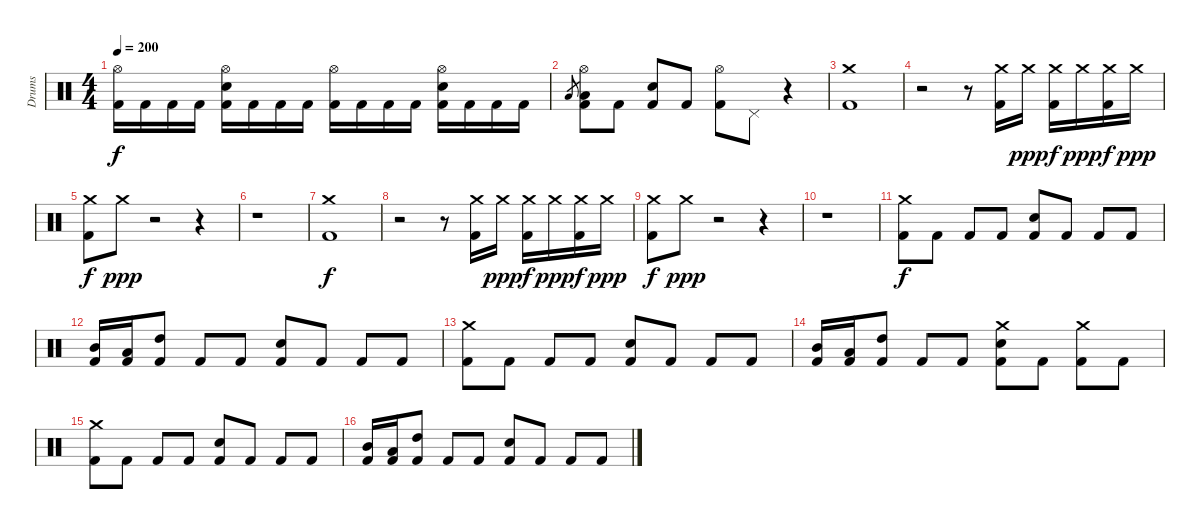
\track ("Drums" "Drums") {instrument percussion}
\staff {score}
\articulation defaults
\ts (4 4)
\tempo 200
\clef neutral
\ks c
("Hi-Hat (open)" "Kick (hit) 2").16{dy f} "Kick (hit) 2".16 "Kick (hit) 2".16 "Kick (hit) 2".16 ("Hi-Hat (open)" "Electric Snare (hit)" "Kick (hit) 2").16 "Kick (hit) 2".16 "Kick (hit) 2".16 "Kick (hit) 2".16 ("Hi-Hat (open)" "Kick (hit) 2").16 "Kick (hit) 2".16 "Kick (hit) 2".16 "Kick (hit) 2".16 ("Hi-Hat (open)" "Electric Snare (hit)" "Kick (hit) 2").16 "Kick (hit) 2".16 "Kick (hit) 2".16 "Kick (hit) 2".16 |
"Low Tom (hit)".8{gr} ("Hi-Hat (open)" "Low Tom (hit)" "Kick (hit) 2").8 "Kick (hit) 2".8 ("Electric Snare (hit)" "Kick (hit) 2").8 "Kick (hit) 2".8 ("Hi-Hat (open)" "Kick (hit) 2").8 "Pedal Hi-Hat (hit)".8 r.4 |
("Crash medium (hit)" "Kick (hit) 2").1 |
r.2 r.8 ("Crash medium (hit)" "Kick (hit) 2").16 "Crash medium (hit)".16{dy ppp} ("Crash medium (hit)" "Kick (hit) 2").16{dy f} "Crash medium (hit)".16{dy ppp} ("Crash medium (hit)" "Kick (hit) 2").16{dy f} "Crash medium (hit)".16{dy ppp} |
("Crash medium (hit)" "Kick (hit) 2").8{dy f} "Crash medium (hit)".8{dy ppp} r.2 r.4 |
r.1 |
("Crash medium (hit)" "Kick (hit) 2").1{dy f} |
r.2 r.8 ("Crash medium (hit)" "Kick (hit) 2").16 "Crash medium (hit)".16{dy ppp} ("Crash medium (hit)" "Kick (hit) 2").16{dy f} "Crash medium (hit)".16{dy ppp} ("Crash medium (hit)" "Kick (hit) 2").16{dy f} "Crash medium (hit)".16{dy ppp} |
("Crash medium (hit)" "Kick (hit) 2").8{dy f} "Crash medium (hit)".8{dy ppp} r.2 r.4 |
r.1 |
("Crash medium (hit)" "Kick (hit) 2").8{dy f} "Kick (hit) 2".8 "Kick (hit) 2".8 "Kick (hit) 2".8 ("Electric Snare (hit)" "Kick (hit) 2").8 "Kick (hit) 2".8 "Kick (hit) 2".8 "Kick (hit) 2".8 |
("Mid Tom (hit)" "Kick (hit) 2").16 ("Low Tom (hit)" "Kick (hit) 2").16 ("High Tom (hit)" "Kick (hit) 2").8 "Kick (hit) 2".8 "Kick (hit) 2".8 ("Electric Snare (hit)" "Kick (hit) 2").8 "Kick (hit) 2".8 "Kick (hit) 2".8 "Kick (hit) 2".8 |
("Crash medium (hit)" "Kick (hit) 2").8 "Kick (hit) 2".8 "Kick (hit) 2".8 "Kick (hit) 2".8 ("Electric Snare (hit)" "Kick (hit) 2").8 "Kick (hit) 2".8 "Kick (hit) 2".8 "Kick (hit) 2".8 |
("Mid Tom (hit)" "Kick (hit) 2").16 ("Low Tom (hit)" "Kick (hit) 2").16 ("High Tom (hit)" "Kick (hit) 2").8 "Kick (hit) 2".8 "Kick (hit) 2".8 ("Crash medium (hit)" "Electric Snare (hit)" "Kick (hit) 2").8 "Kick (hit) 2".8 ("Crash medium (hit)" "Kick (hit) 2").8 "Kick (hit) 2".8 |
("Crash medium (hit)" "Kick (hit) 2").8 "Kick (hit) 2".8 "Kick (hit) 2".8 "Kick (hit) 2".8 ("Electric Snare (hit)" "Kick (hit) 2").8 "Kick (hit) 2".8 "Kick (hit) 2".8 "Kick (hit) 2".8 |
("Mid Tom (hit)" "Kick (hit) 2").16 ("Low Tom (hit)" "Kick (hit) 2").16 ("High Tom (hit)" "Kick (hit) 2").8 "Kick (hit) 2".8 "Kick (hit) 2".8 ("Electric Snare (hit)" "Kick (hit) 2").8 "Kick (hit) 2".8 "Kick (hit) 2".8 "Kick (hit) 2".8
